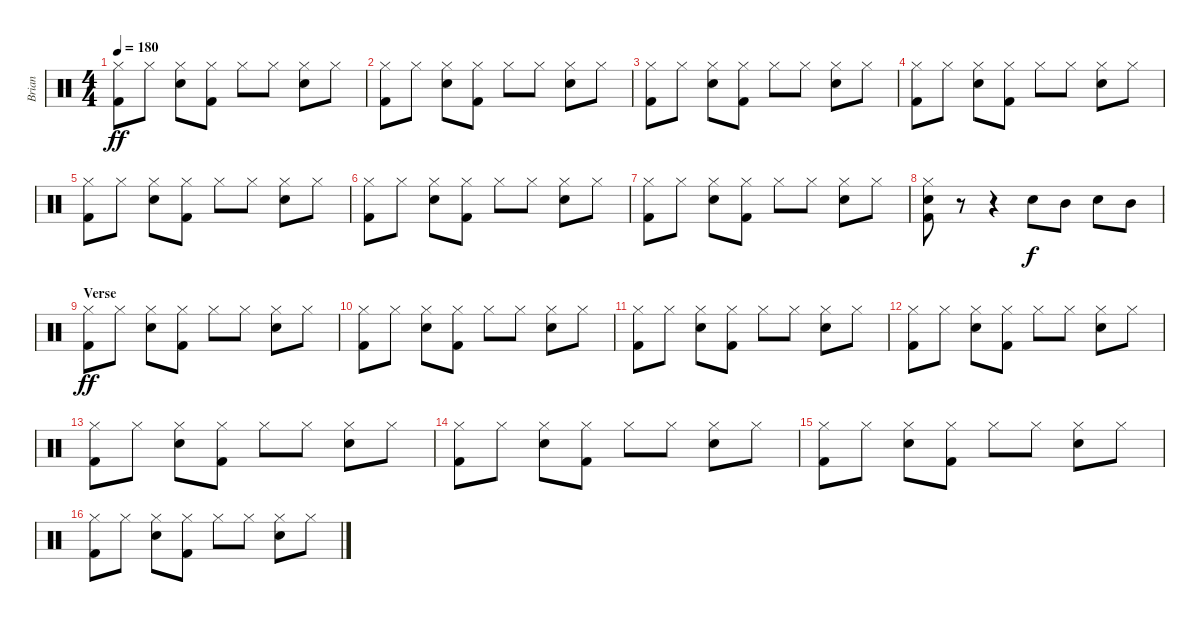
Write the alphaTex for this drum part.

\track ("Brian" "Brian") {instrument percussion}
\staff {score}
\articulation defaults
\ts (4 4)
\tempo 180
\clef neutral
\ks c
("Hi-Hat (closed)" "Kick (hit) 2").8{dy ff} "Hi-Hat (closed)".8 ("Hi-Hat (closed)" "Snare (hit) 2").8 ("Hi-Hat (closed)" "Kick (hit) 2").8 "Hi-Hat (closed)".8 "Hi-Hat (closed)".8 ("Hi-Hat (closed)" "Snare (hit) 2").8 "Hi-Hat (closed)".8 |
("Hi-Hat (closed)" "Kick (hit) 2").8 "Hi-Hat (closed)".8 ("Hi-Hat (closed)" "Snare (hit) 2").8 ("Hi-Hat (closed)" "Kick (hit) 2").8 "Hi-Hat (closed)".8 "Hi-Hat (closed)".8 ("Hi-Hat (closed)" "Snare (hit) 2").8 "Hi-Hat (closed)".8 |
("Hi-Hat (closed)" "Kick (hit) 2").8 "Hi-Hat (closed)".8 ("Hi-Hat (closed)" "Snare (hit) 2").8 ("Hi-Hat (closed)" "Kick (hit) 2").8 "Hi-Hat (closed)".8 "Hi-Hat (closed)".8 ("Hi-Hat (closed)" "Snare (hit) 2").8 "Hi-Hat (closed)".8 |
("Hi-Hat (closed)" "Kick (hit) 2").8 "Hi-Hat (closed)".8 ("Hi-Hat (closed)" "Snare (hit) 2").8 ("Hi-Hat (closed)" "Kick (hit) 2").8 "Hi-Hat (closed)".8 "Hi-Hat (closed)".8 ("Hi-Hat (closed)" "Snare (hit) 2").8 "Hi-Hat (closed)".8 |
("Hi-Hat (closed)" "Kick (hit) 2").8 "Hi-Hat (closed)".8 ("Hi-Hat (closed)" "Snare (hit) 2").8 ("Hi-Hat (closed)" "Kick (hit) 2").8 "Hi-Hat (closed)".8 "Hi-Hat (closed)".8 ("Hi-Hat (closed)" "Snare (hit) 2").8 "Hi-Hat (closed)".8 |
("Hi-Hat (closed)" "Kick (hit) 2").8 "Hi-Hat (closed)".8 ("Hi-Hat (closed)" "Snare (hit) 2").8 ("Hi-Hat (closed)" "Kick (hit) 2").8 "Hi-Hat (closed)".8 "Hi-Hat (closed)".8 ("Hi-Hat (closed)" "Snare (hit) 2").8 "Hi-Hat (closed)".8 |
("Hi-Hat (closed)" "Kick (hit) 2").8 "Hi-Hat (closed)".8 ("Hi-Hat (closed)" "Snare (hit) 2").8 ("Hi-Hat (closed)" "Kick (hit) 2").8 "Hi-Hat (closed)".8 "Hi-Hat (closed)".8 ("Hi-Hat (closed)" "Snare (hit) 2").8 "Hi-Hat (closed)".8 |
("Hi-Hat (closed)" "Snare (hit) 2" "Kick (hit) 2").8 r.8 r.4 "Snare (hit) 2".8{dy f} "Mid Tom (hit)".8 "Snare (hit) 2".8 "Mid Tom (hit)".8 |
\section ("" "Verse")
("Hi-Hat (closed)" "Kick (hit) 2").8{dy ff} "Hi-Hat (closed)".8 ("Hi-Hat (closed)" "Snare (hit) 2").8 ("Hi-Hat (closed)" "Kick (hit) 2").8 "Hi-Hat (closed)".8 "Hi-Hat (closed)".8 ("Hi-Hat (closed)" "Snare (hit) 2").8 "Hi-Hat (closed)".8 |
("Hi-Hat (closed)" "Kick (hit) 2").8 "Hi-Hat (closed)".8 ("Hi-Hat (closed)" "Snare (hit) 2").8 ("Hi-Hat (closed)" "Kick (hit) 2").8 "Hi-Hat (closed)".8 "Hi-Hat (closed)".8 ("Hi-Hat (closed)" "Snare (hit) 2").8 "Hi-Hat (closed)".8 |
("Hi-Hat (closed)" "Kick (hit) 2").8 "Hi-Hat (closed)".8 ("Hi-Hat (closed)" "Snare (hit) 2").8 ("Hi-Hat (closed)" "Kick (hit) 2").8 "Hi-Hat (closed)".8 "Hi-Hat (closed)".8 ("Hi-Hat (closed)" "Snare (hit) 2").8 "Hi-Hat (closed)".8 |
("Hi-Hat (closed)" "Kick (hit) 2").8 "Hi-Hat (closed)".8 ("Hi-Hat (closed)" "Snare (hit) 2").8 ("Hi-Hat (closed)" "Kick (hit) 2").8 "Hi-Hat (closed)".8 "Hi-Hat (closed)".8 ("Hi-Hat (closed)" "Snare (hit) 2").8 "Hi-Hat (closed)".8 |
("Hi-Hat (closed)" "Kick (hit) 2").8 "Hi-Hat (closed)".8 ("Hi-Hat (closed)" "Snare (hit) 2").8 ("Hi-Hat (closed)" "Kick (hit) 2").8 "Hi-Hat (closed)".8 "Hi-Hat (closed)".8 ("Hi-Hat (closed)" "Snare (hit) 2").8 "Hi-Hat (closed)".8 |
("Hi-Hat (closed)" "Kick (hit) 2").8 "Hi-Hat (closed)".8 ("Hi-Hat (closed)" "Snare (hit) 2").8 ("Hi-Hat (closed)" "Kick (hit) 2").8 "Hi-Hat (closed)".8 "Hi-Hat (closed)".8 ("Hi-Hat (closed)" "Snare (hit) 2").8 "Hi-Hat (closed)".8 |
("Hi-Hat (closed)" "Kick (hit) 2").8 "Hi-Hat (closed)".8 ("Hi-Hat (closed)" "Snare (hit) 2").8 ("Hi-Hat (closed)" "Kick (hit) 2").8 "Hi-Hat (closed)".8 "Hi-Hat (closed)".8 ("Hi-Hat (closed)" "Snare (hit) 2").8 "Hi-Hat (closed)".8 |
("Hi-Hat (closed)" "Kick (hit) 2").8 "Hi-Hat (closed)".8 ("Hi-Hat (closed)" "Snare (hit) 2").8 ("Hi-Hat (closed)" "Kick (hit) 2").8 "Hi-Hat (closed)".8 "Hi-Hat (closed)".8 ("Hi-Hat (closed)" "Snare (hit) 2").8 "Hi-Hat (closed)".8
